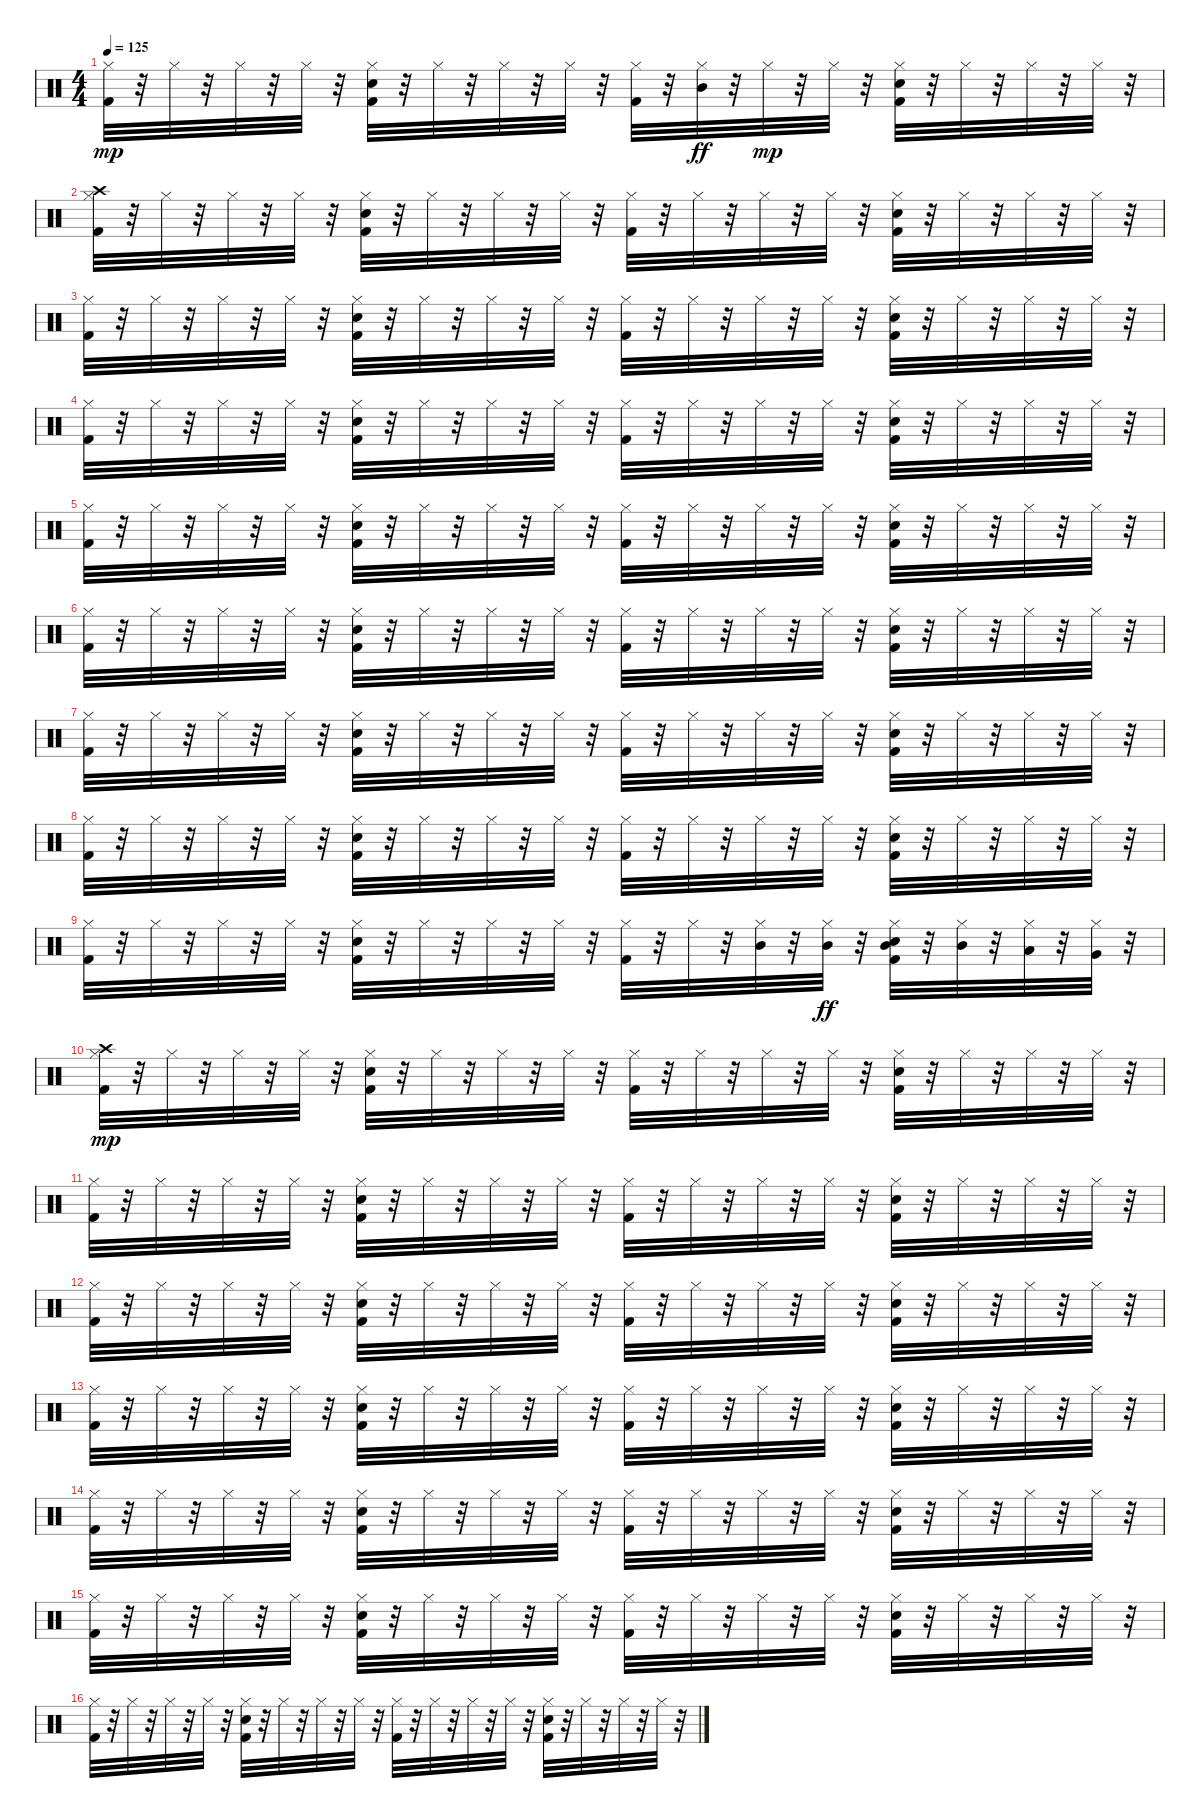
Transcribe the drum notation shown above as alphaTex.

\track "" {instrument percussion}
\staff {score}
\articulation defaults
\ts (4 4)
\tempo 125
\clef neutral
\ks c
("Kick (hit) 2" "Hi-Hat (closed)").32{dy mp} r.32 "Hi-Hat (closed)".32 r.32 "Hi-Hat (closed)".32 r.32 "Hi-Hat (closed)".32 r.32 ("Kick (hit) 2" "Snare (hit) 2" "Hi-Hat (closed)").32 r.32 "Hi-Hat (closed)".32 r.32 "Hi-Hat (closed)".32 r.32 "Hi-Hat (closed)".32 r.32 ("Kick (hit) 2" "Hi-Hat (closed)").32 r.32 ("Hi-Hat (closed)" "Mid Tom (hit)").32{dy ff} r.32 "Hi-Hat (closed)".32{dy mp} r.32 "Hi-Hat (closed)".32 r.32 ("Kick (hit) 2" "Snare (hit) 2" "Hi-Hat (closed)").32 r.32 "Hi-Hat (closed)".32 r.32 "Hi-Hat (closed)".32 r.32 "Hi-Hat (closed)".32 r.32 |
("Crash high (hit)" "Kick (hit) 2" "Hi-Hat (closed)").32 r.32 "Hi-Hat (closed)".32 r.32 "Hi-Hat (closed)".32 r.32 "Hi-Hat (closed)".32 r.32 ("Kick (hit) 2" "Snare (hit) 2" "Hi-Hat (closed)").32 r.32 "Hi-Hat (closed)".32 r.32 "Hi-Hat (closed)".32 r.32 "Hi-Hat (closed)".32 r.32 ("Kick (hit) 2" "Hi-Hat (closed)").32 r.32 "Hi-Hat (closed)".32 r.32 "Hi-Hat (closed)".32 r.32 "Hi-Hat (closed)".32 r.32 ("Kick (hit) 2" "Snare (hit) 2" "Hi-Hat (closed)").32 r.32 "Hi-Hat (closed)".32 r.32 "Hi-Hat (closed)".32 r.32 "Hi-Hat (closed)".32 r.32 |
("Kick (hit) 2" "Hi-Hat (closed)").32 r.32 "Hi-Hat (closed)".32 r.32 "Hi-Hat (closed)".32 r.32 "Hi-Hat (closed)".32 r.32 ("Kick (hit) 2" "Snare (hit) 2" "Hi-Hat (closed)").32 r.32 "Hi-Hat (closed)".32 r.32 "Hi-Hat (closed)".32 r.32 "Hi-Hat (closed)".32 r.32 ("Kick (hit) 2" "Hi-Hat (closed)").32 r.32 "Hi-Hat (closed)".32 r.32 "Hi-Hat (closed)".32 r.32 "Hi-Hat (closed)".32 r.32 ("Kick (hit) 2" "Snare (hit) 2" "Hi-Hat (closed)").32 r.32 "Hi-Hat (closed)".32 r.32 "Hi-Hat (closed)".32 r.32 "Hi-Hat (closed)".32 r.32 |
("Kick (hit) 2" "Hi-Hat (closed)").32 r.32 "Hi-Hat (closed)".32 r.32 "Hi-Hat (closed)".32 r.32 "Hi-Hat (closed)".32 r.32 ("Kick (hit) 2" "Snare (hit) 2" "Hi-Hat (closed)").32 r.32 "Hi-Hat (closed)".32 r.32 "Hi-Hat (closed)".32 r.32 "Hi-Hat (closed)".32 r.32 ("Kick (hit) 2" "Hi-Hat (closed)").32 r.32 "Hi-Hat (closed)".32 r.32 "Hi-Hat (closed)".32 r.32 "Hi-Hat (closed)".32 r.32 ("Kick (hit) 2" "Snare (hit) 2" "Hi-Hat (closed)").32 r.32 "Hi-Hat (closed)".32 r.32 "Hi-Hat (closed)".32 r.32 "Hi-Hat (closed)".32 r.32 |
("Kick (hit) 2" "Hi-Hat (closed)").32 r.32 "Hi-Hat (closed)".32 r.32 "Hi-Hat (closed)".32 r.32 "Hi-Hat (closed)".32 r.32 ("Kick (hit) 2" "Snare (hit) 2" "Hi-Hat (closed)").32 r.32 "Hi-Hat (closed)".32 r.32 "Hi-Hat (closed)".32 r.32 "Hi-Hat (closed)".32 r.32 ("Kick (hit) 2" "Hi-Hat (closed)").32 r.32 "Hi-Hat (closed)".32 r.32 "Hi-Hat (closed)".32 r.32 "Hi-Hat (closed)".32 r.32 ("Kick (hit) 2" "Snare (hit) 2" "Hi-Hat (closed)").32 r.32 "Hi-Hat (closed)".32 r.32 "Hi-Hat (closed)".32 r.32 "Hi-Hat (closed)".32 r.32 |
("Kick (hit) 2" "Hi-Hat (closed)").32 r.32 "Hi-Hat (closed)".32 r.32 "Hi-Hat (closed)".32 r.32 "Hi-Hat (closed)".32 r.32 ("Kick (hit) 2" "Snare (hit) 2" "Hi-Hat (closed)").32 r.32 "Hi-Hat (closed)".32 r.32 "Hi-Hat (closed)".32 r.32 "Hi-Hat (closed)".32 r.32 ("Kick (hit) 2" "Hi-Hat (closed)").32 r.32 "Hi-Hat (closed)".32 r.32 "Hi-Hat (closed)".32 r.32 "Hi-Hat (closed)".32 r.32 ("Kick (hit) 2" "Snare (hit) 2" "Hi-Hat (closed)").32 r.32 "Hi-Hat (closed)".32 r.32 "Hi-Hat (closed)".32 r.32 "Hi-Hat (closed)".32 r.32 |
("Kick (hit) 2" "Hi-Hat (closed)").32 r.32 "Hi-Hat (closed)".32 r.32 "Hi-Hat (closed)".32 r.32 "Hi-Hat (closed)".32 r.32 ("Kick (hit) 2" "Snare (hit) 2" "Hi-Hat (closed)").32 r.32 "Hi-Hat (closed)".32 r.32 "Hi-Hat (closed)".32 r.32 "Hi-Hat (closed)".32 r.32 ("Kick (hit) 2" "Hi-Hat (closed)").32 r.32 "Hi-Hat (closed)".32 r.32 "Hi-Hat (closed)".32 r.32 "Hi-Hat (closed)".32 r.32 ("Kick (hit) 2" "Snare (hit) 2" "Hi-Hat (closed)").32 r.32 "Hi-Hat (closed)".32 r.32 "Hi-Hat (closed)".32 r.32 "Hi-Hat (closed)".32 r.32 |
("Kick (hit) 2" "Hi-Hat (closed)").32 r.32 "Hi-Hat (closed)".32 r.32 "Hi-Hat (closed)".32 r.32 "Hi-Hat (closed)".32 r.32 ("Kick (hit) 2" "Snare (hit) 2" "Hi-Hat (closed)").32 r.32 "Hi-Hat (closed)".32 r.32 "Hi-Hat (closed)".32 r.32 "Hi-Hat (closed)".32 r.32 ("Kick (hit) 2" "Hi-Hat (closed)").32 r.32 "Hi-Hat (closed)".32 r.32 "Hi-Hat (closed)".32 r.32 "Hi-Hat (closed)".32 r.32 ("Kick (hit) 2" "Snare (hit) 2" "Hi-Hat (closed)").32 r.32 "Hi-Hat (closed)".32 r.32 "Hi-Hat (closed)".32 r.32 "Hi-Hat (closed)".32 r.32 |
("Kick (hit) 2" "Hi-Hat (closed)").32 r.32 "Hi-Hat (closed)".32 r.32 "Hi-Hat (closed)".32 r.32 "Hi-Hat (closed)".32 r.32 ("Kick (hit) 2" "Snare (hit) 2" "Hi-Hat (closed)").32 r.32 "Hi-Hat (closed)".32 r.32 "Hi-Hat (closed)".32 r.32 "Hi-Hat (closed)".32 r.32 ("Kick (hit) 2" "Hi-Hat (closed)").32 r.32 "Hi-Hat (closed)".32 r.32 ("Mid Tom (hit)" "Hi-Hat (closed)").32 r.32 ("Hi-Hat (closed)" "Mid Tom (hit)").32{dy ff} r.32 ("Kick (hit) 2" "Snare (hit) 2" "Hi-Hat (closed)" "Mid Tom (hit)").32 r.32 ("Hi-Hat (closed)" "Mid Tom (hit)").32 r.32 ("Hi-Hat (closed)" "Low Tom (hit)").32 r.32 ("Hi-Hat (closed)" "Very Low Tom (hit)").32 r.32 |
("Crash high (hit)" "Kick (hit) 2" "Hi-Hat (closed)").32{dy mp} r.32 "Hi-Hat (closed)".32 r.32 "Hi-Hat (closed)".32 r.32 "Hi-Hat (closed)".32 r.32 ("Kick (hit) 2" "Snare (hit) 2" "Hi-Hat (closed)").32 r.32 "Hi-Hat (closed)".32 r.32 "Hi-Hat (closed)".32 r.32 "Hi-Hat (closed)".32 r.32 ("Kick (hit) 2" "Hi-Hat (closed)").32 r.32 "Hi-Hat (closed)".32 r.32 "Hi-Hat (closed)".32 r.32 "Hi-Hat (closed)".32 r.32 ("Kick (hit) 2" "Snare (hit) 2" "Hi-Hat (closed)").32 r.32 "Hi-Hat (closed)".32 r.32 "Hi-Hat (closed)".32 r.32 "Hi-Hat (closed)".32 r.32 |
("Kick (hit) 2" "Hi-Hat (closed)").32 r.32 "Hi-Hat (closed)".32 r.32 "Hi-Hat (closed)".32 r.32 "Hi-Hat (closed)".32 r.32 ("Kick (hit) 2" "Snare (hit) 2" "Hi-Hat (closed)").32 r.32 "Hi-Hat (closed)".32 r.32 "Hi-Hat (closed)".32 r.32 "Hi-Hat (closed)".32 r.32 ("Kick (hit) 2" "Hi-Hat (closed)").32 r.32 "Hi-Hat (closed)".32 r.32 "Hi-Hat (closed)".32 r.32 "Hi-Hat (closed)".32 r.32 ("Kick (hit) 2" "Snare (hit) 2" "Hi-Hat (closed)").32 r.32 "Hi-Hat (closed)".32 r.32 "Hi-Hat (closed)".32 r.32 "Hi-Hat (closed)".32 r.32 |
("Kick (hit) 2" "Hi-Hat (closed)").32 r.32 "Hi-Hat (closed)".32 r.32 "Hi-Hat (closed)".32 r.32 "Hi-Hat (closed)".32 r.32 ("Kick (hit) 2" "Snare (hit) 2" "Hi-Hat (closed)").32 r.32 "Hi-Hat (closed)".32 r.32 "Hi-Hat (closed)".32 r.32 "Hi-Hat (closed)".32 r.32 ("Kick (hit) 2" "Hi-Hat (closed)").32 r.32 "Hi-Hat (closed)".32 r.32 "Hi-Hat (closed)".32 r.32 "Hi-Hat (closed)".32 r.32 ("Kick (hit) 2" "Snare (hit) 2" "Hi-Hat (closed)").32 r.32 "Hi-Hat (closed)".32 r.32 "Hi-Hat (closed)".32 r.32 "Hi-Hat (closed)".32 r.32 |
("Kick (hit) 2" "Hi-Hat (closed)").32 r.32 "Hi-Hat (closed)".32 r.32 "Hi-Hat (closed)".32 r.32 "Hi-Hat (closed)".32 r.32 ("Kick (hit) 2" "Snare (hit) 2" "Hi-Hat (closed)").32 r.32 "Hi-Hat (closed)".32 r.32 "Hi-Hat (closed)".32 r.32 "Hi-Hat (closed)".32 r.32 ("Kick (hit) 2" "Hi-Hat (closed)").32 r.32 "Hi-Hat (closed)".32 r.32 "Hi-Hat (closed)".32 r.32 "Hi-Hat (closed)".32 r.32 ("Kick (hit) 2" "Snare (hit) 2" "Hi-Hat (closed)").32 r.32 "Hi-Hat (closed)".32 r.32 "Hi-Hat (closed)".32 r.32 "Hi-Hat (closed)".32 r.32 |
("Kick (hit) 2" "Hi-Hat (closed)").32 r.32 "Hi-Hat (closed)".32 r.32 "Hi-Hat (closed)".32 r.32 "Hi-Hat (closed)".32 r.32 ("Kick (hit) 2" "Snare (hit) 2" "Hi-Hat (closed)").32 r.32 "Hi-Hat (closed)".32 r.32 "Hi-Hat (closed)".32 r.32 "Hi-Hat (closed)".32 r.32 ("Kick (hit) 2" "Hi-Hat (closed)").32 r.32 "Hi-Hat (closed)".32 r.32 "Hi-Hat (closed)".32 r.32 "Hi-Hat (closed)".32 r.32 ("Kick (hit) 2" "Snare (hit) 2" "Hi-Hat (closed)").32 r.32 "Hi-Hat (closed)".32 r.32 "Hi-Hat (closed)".32 r.32 "Hi-Hat (closed)".32 r.32 |
("Kick (hit) 2" "Hi-Hat (closed)").32 r.32 "Hi-Hat (closed)".32 r.32 "Hi-Hat (closed)".32 r.32 "Hi-Hat (closed)".32 r.32 ("Kick (hit) 2" "Snare (hit) 2" "Hi-Hat (closed)").32 r.32 "Hi-Hat (closed)".32 r.32 "Hi-Hat (closed)".32 r.32 "Hi-Hat (closed)".32 r.32 ("Kick (hit) 2" "Hi-Hat (closed)").32 r.32 "Hi-Hat (closed)".32 r.32 "Hi-Hat (closed)".32 r.32 "Hi-Hat (closed)".32 r.32 ("Kick (hit) 2" "Snare (hit) 2" "Hi-Hat (closed)").32 r.32 "Hi-Hat (closed)".32 r.32 "Hi-Hat (closed)".32 r.32 "Hi-Hat (closed)".32 r.32 |
("Kick (hit) 2" "Hi-Hat (closed)").32 r.32 "Hi-Hat (closed)".32 r.32 "Hi-Hat (closed)".32 r.32 "Hi-Hat (closed)".32 r.32 ("Kick (hit) 2" "Snare (hit) 2" "Hi-Hat (closed)").32 r.32 "Hi-Hat (closed)".32 r.32 "Hi-Hat (closed)".32 r.32 "Hi-Hat (closed)".32 r.32 ("Kick (hit) 2" "Hi-Hat (closed)").32 r.32 "Hi-Hat (closed)".32 r.32 "Hi-Hat (closed)".32 r.32 "Hi-Hat (closed)".32 r.32 ("Kick (hit) 2" "Snare (hit) 2" "Hi-Hat (closed)").32 r.32 "Hi-Hat (closed)".32 r.32 "Hi-Hat (closed)".32 r.32 "Hi-Hat (closed)".32 r.32
